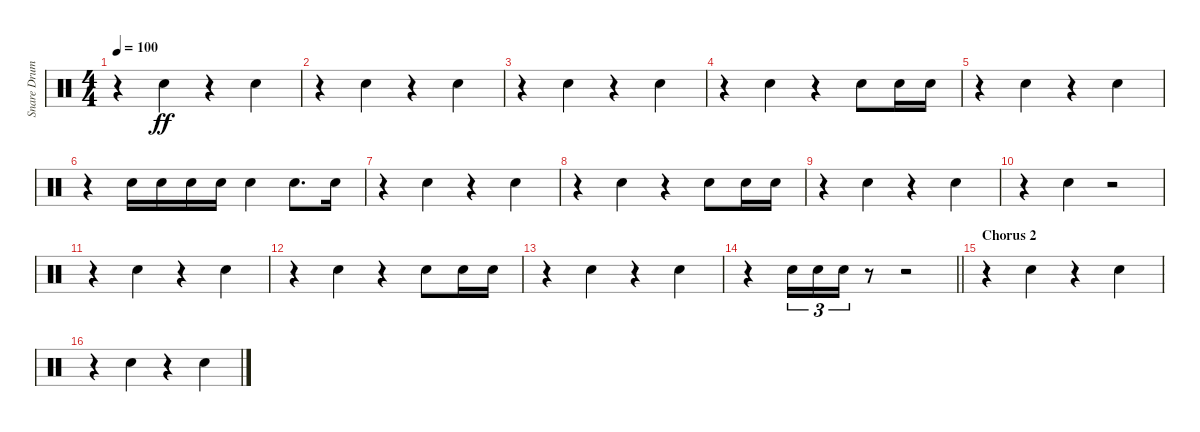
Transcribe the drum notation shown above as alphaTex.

\track ("Snare Drum - reverb" "Snare Drum") {instrument percussion}
\staff {score}
\articulation defaults
\ts (4 4)
\tempo 100
\clef neutral
\ks c
r.4{dy ff} "Snare (hit) 2".4 r.4 "Snare (hit) 2".4 |
r.4 "Snare (hit) 2".4 r.4 "Snare (hit) 2".4 |
r.4 "Snare (hit) 2".4 r.4 "Snare (hit) 2".4 |
r.4 "Snare (hit) 2".4 r.4 "Snare (hit) 2".8 "Snare (hit) 2".16 "Snare (hit) 2".16 |
r.4 "Snare (hit) 2".4 r.4 "Snare (hit) 2".4 |
r.4 "Snare (hit) 2".16 "Snare (hit) 2".16 "Snare (hit) 2".16 "Snare (hit) 2".16 "Snare (hit) 2".4 "Snare (hit) 2".8{d} "Snare (hit) 2".16 |
r.4 "Snare (hit) 2".4 r.4 "Snare (hit) 2".4 |
r.4 "Snare (hit) 2".4 r.4 "Snare (hit) 2".8 "Snare (hit) 2".16 "Snare (hit) 2".16 |
r.4 "Snare (hit) 2".4 r.4 "Snare (hit) 2".4 |
r.4 "Snare (hit) 2".4 r.2 |
r.4 "Snare (hit) 2".4 r.4 "Snare (hit) 2".4 |
r.4 "Snare (hit) 2".4 r.4 "Snare (hit) 2".8 "Snare (hit) 2".16 "Snare (hit) 2".16 |
r.4 "Snare (hit) 2".4 r.4 "Snare (hit) 2".4 |
\barLineRight lightlight
r.4 "Snare (hit) 2".16{tu (3 2)} "Snare (hit) 2".16{tu (3 2)} "Snare (hit) 2".16{tu (3 2)} r.8 r.2 |
\section ("" "Chorus 2")
r.4 "Snare (hit) 2".4 r.4 "Snare (hit) 2".4 |
r.4 "Snare (hit) 2".4 r.4 "Snare (hit) 2".4
